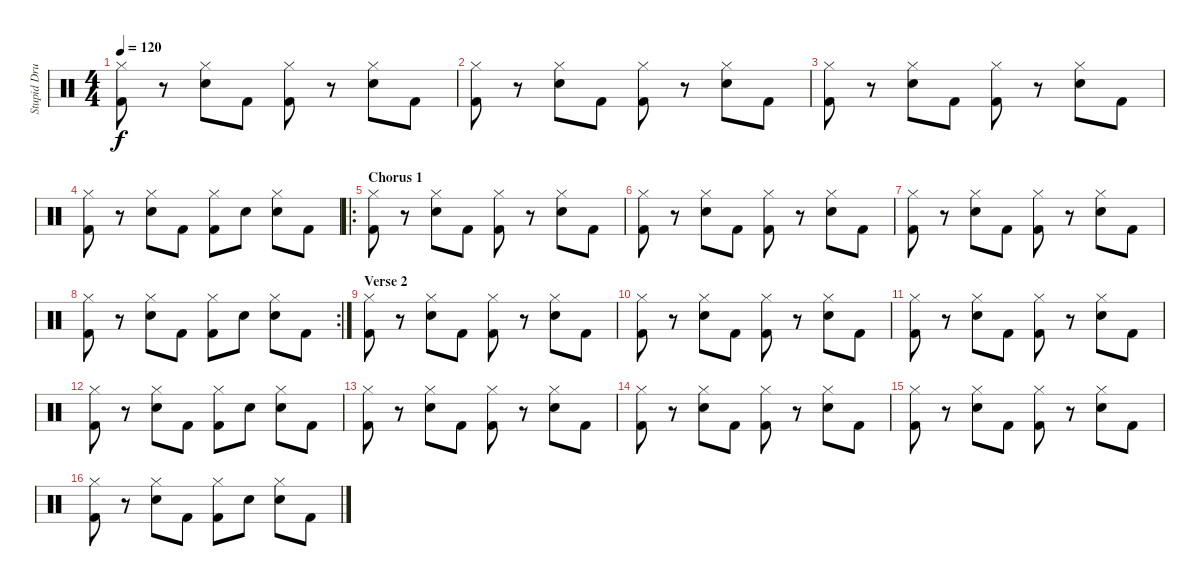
\track ("Stupid Drummer" "Stupid Dru") {instrument percussion}
\staff {score}
\articulation defaults
\ts (4 4)
\tempo 120
\clef neutral
\ks c
("Hi-Hat (closed)" "Kick (hit) 2").8{dy f} r.8 ("Hi-Hat (closed)" "Electric Snare (hit)").8 "Kick (hit) 2".8 ("Hi-Hat (closed)" "Kick (hit) 2").8 r.8 ("Hi-Hat (closed)" "Electric Snare (hit)").8 "Kick (hit) 2".8 |
("Hi-Hat (closed)" "Kick (hit) 2").8 r.8 ("Hi-Hat (closed)" "Electric Snare (hit)").8 "Kick (hit) 2".8 ("Hi-Hat (closed)" "Kick (hit) 2").8 r.8 ("Hi-Hat (closed)" "Electric Snare (hit)").8 "Kick (hit) 2".8 |
("Hi-Hat (closed)" "Kick (hit) 2").8 r.8 ("Hi-Hat (closed)" "Electric Snare (hit)").8 "Kick (hit) 2".8 ("Hi-Hat (closed)" "Kick (hit) 2").8 r.8 ("Hi-Hat (closed)" "Electric Snare (hit)").8 "Kick (hit) 2".8 |
("Hi-Hat (closed)" "Kick (hit) 2").8 r.8 ("Hi-Hat (closed)" "Electric Snare (hit)").8 "Kick (hit) 2".8 ("Hi-Hat (closed)" "Kick (hit) 2").8 "Electric Snare (hit)".8 ("Hi-Hat (closed)" "Electric Snare (hit)").8 "Kick (hit) 2".8 |
\ro
\section ("" "Chorus 1")
("Hi-Hat (closed)" "Kick (hit) 2").8 r.8 ("Hi-Hat (closed)" "Electric Snare (hit)").8 "Kick (hit) 2".8 ("Hi-Hat (closed)" "Kick (hit) 2").8 r.8 ("Hi-Hat (closed)" "Electric Snare (hit)").8 "Kick (hit) 2".8 |
("Hi-Hat (closed)" "Kick (hit) 2").8 r.8 ("Hi-Hat (closed)" "Electric Snare (hit)").8 "Kick (hit) 2".8 ("Hi-Hat (closed)" "Kick (hit) 2").8 r.8 ("Hi-Hat (closed)" "Electric Snare (hit)").8 "Kick (hit) 2".8 |
("Hi-Hat (closed)" "Kick (hit) 2").8 r.8 ("Hi-Hat (closed)" "Electric Snare (hit)").8 "Kick (hit) 2".8 ("Hi-Hat (closed)" "Kick (hit) 2").8 r.8 ("Hi-Hat (closed)" "Electric Snare (hit)").8 "Kick (hit) 2".8 |
\rc 2
("Hi-Hat (closed)" "Kick (hit) 2").8 r.8 ("Hi-Hat (closed)" "Electric Snare (hit)").8 "Kick (hit) 2".8 ("Hi-Hat (closed)" "Kick (hit) 2").8 "Electric Snare (hit)".8 ("Hi-Hat (closed)" "Electric Snare (hit)").8 "Kick (hit) 2".8 |
\section ("" "Verse 2")
("Hi-Hat (closed)" "Kick (hit) 2").8 r.8 ("Hi-Hat (closed)" "Electric Snare (hit)").8 "Kick (hit) 2".8 ("Hi-Hat (closed)" "Kick (hit) 2").8 r.8 ("Hi-Hat (closed)" "Electric Snare (hit)").8 "Kick (hit) 2".8 |
("Hi-Hat (closed)" "Kick (hit) 2").8 r.8 ("Hi-Hat (closed)" "Electric Snare (hit)").8 "Kick (hit) 2".8 ("Hi-Hat (closed)" "Kick (hit) 2").8 r.8 ("Hi-Hat (closed)" "Electric Snare (hit)").8 "Kick (hit) 2".8 |
("Hi-Hat (closed)" "Kick (hit) 2").8 r.8 ("Hi-Hat (closed)" "Electric Snare (hit)").8 "Kick (hit) 2".8 ("Hi-Hat (closed)" "Kick (hit) 2").8 r.8 ("Hi-Hat (closed)" "Electric Snare (hit)").8 "Kick (hit) 2".8 |
("Hi-Hat (closed)" "Kick (hit) 2").8 r.8 ("Hi-Hat (closed)" "Electric Snare (hit)").8 "Kick (hit) 2".8 ("Hi-Hat (closed)" "Kick (hit) 2").8 "Electric Snare (hit)".8 ("Hi-Hat (closed)" "Electric Snare (hit)").8 "Kick (hit) 2".8 |
("Hi-Hat (closed)" "Kick (hit) 2").8 r.8 ("Hi-Hat (closed)" "Electric Snare (hit)").8 "Kick (hit) 2".8 ("Hi-Hat (closed)" "Kick (hit) 2").8 r.8 ("Hi-Hat (closed)" "Electric Snare (hit)").8 "Kick (hit) 2".8 |
("Hi-Hat (closed)" "Kick (hit) 2").8 r.8 ("Hi-Hat (closed)" "Electric Snare (hit)").8 "Kick (hit) 2".8 ("Hi-Hat (closed)" "Kick (hit) 2").8 r.8 ("Hi-Hat (closed)" "Electric Snare (hit)").8 "Kick (hit) 2".8 |
("Hi-Hat (closed)" "Kick (hit) 2").8 r.8 ("Hi-Hat (closed)" "Electric Snare (hit)").8 "Kick (hit) 2".8 ("Hi-Hat (closed)" "Kick (hit) 2").8 r.8 ("Hi-Hat (closed)" "Electric Snare (hit)").8 "Kick (hit) 2".8 |
("Hi-Hat (closed)" "Kick (hit) 2").8 r.8 ("Hi-Hat (closed)" "Electric Snare (hit)").8 "Kick (hit) 2".8 ("Hi-Hat (closed)" "Kick (hit) 2").8 "Electric Snare (hit)".8 ("Hi-Hat (closed)" "Electric Snare (hit)").8 "Kick (hit) 2".8
